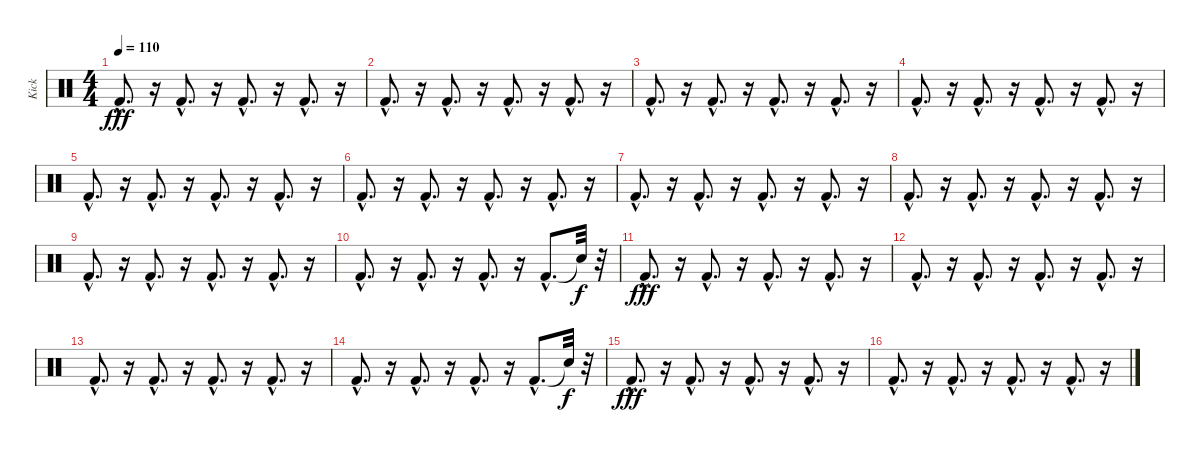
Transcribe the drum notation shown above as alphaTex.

\track ("Kick" "Kick") {instrument percussion}
\staff {score}
\articulation defaults
\ts (4 4)
\tempo 110
\clef neutral
\ks c "Kick (hit) 2"{hac}.8{d dy fff}
r.16 "Kick (hit) 2"{hac}.8{d} r.16 "Kick (hit) 2"{hac}.8{d} r.16 "Kick (hit) 2"{hac}.8{d} r.16 |
"Kick (hit) 2"{hac}.8{d} r.16 "Kick (hit) 2"{hac}.8{d} r.16 "Kick (hit) 2"{hac}.8{d} r.16 "Kick (hit) 2"{hac}.8{d} r.16 |
"Kick (hit) 2"{hac}.8{d} r.16 "Kick (hit) 2"{hac}.8{d} r.16 "Kick (hit) 2"{hac}.8{d} r.16 "Kick (hit) 2"{hac}.8{d} r.16 |
"Kick (hit) 2"{hac}.8{d} r.16 "Kick (hit) 2"{hac}.8{d} r.16 "Kick (hit) 2"{hac}.8{d} r.16 "Kick (hit) 2"{hac}.8{d} r.16 |
"Kick (hit) 2"{hac}.8{d} r.16 "Kick (hit) 2"{hac}.8{d} r.16 "Kick (hit) 2"{hac}.8{d} r.16 "Kick (hit) 2"{hac}.8{d} r.16 |
"Kick (hit) 2"{hac}.8{d} r.16 "Kick (hit) 2"{hac}.8{d} r.16 "Kick (hit) 2"{hac}.8{d} r.16 "Kick (hit) 2"{hac}.8{d} r.16 |
"Kick (hit) 2"{hac}.8{d} r.16 "Kick (hit) 2"{hac}.8{d} r.16 "Kick (hit) 2"{hac}.8{d} r.16 "Kick (hit) 2"{hac}.8{d} r.16 |
"Kick (hit) 2"{hac}.8{d} r.16 "Kick (hit) 2"{hac}.8{d} r.16 "Kick (hit) 2"{hac}.8{d} r.16 "Kick (hit) 2"{hac}.8{d} r.16 |
"Kick (hit) 2"{hac}.8{d} r.16 "Kick (hit) 2"{hac}.8{d} r.16 "Kick (hit) 2"{hac}.8{d} r.16 "Kick (hit) 2"{hac}.8{d} r.16 |
"Kick (hit) 2"{hac}.8{d} r.16 "Kick (hit) 2"{hac}.8{d} r.16 "Kick (hit) 2"{hac}.8{d} r.16 "Kick (hit) 2"{hac}.8{d} "Snare (hit)"{t}.32{dy f} r.32 |
"Kick (hit) 2"{hac}.8{d dy fff} r.16 "Kick (hit) 2"{hac}.8{d} r.16 "Kick (hit) 2"{hac}.8{d} r.16 "Kick (hit) 2"{hac}.8{d} r.16 |
"Kick (hit) 2"{hac}.8{d} r.16 "Kick (hit) 2"{hac}.8{d} r.16 "Kick (hit) 2"{hac}.8{d} r.16 "Kick (hit) 2"{hac}.8{d} r.16 |
"Kick (hit) 2"{hac}.8{d} r.16 "Kick (hit) 2"{hac}.8{d} r.16 "Kick (hit) 2"{hac}.8{d} r.16 "Kick (hit) 2"{hac}.8{d} r.16 |
"Kick (hit) 2"{hac}.8{d} r.16 "Kick (hit) 2"{hac}.8{d} r.16 "Kick (hit) 2"{hac}.8{d} r.16 "Kick (hit) 2"{hac}.8{d} "Snare (hit)"{t}.32{dy f} r.32 |
"Kick (hit) 2"{hac}.8{d dy fff} r.16 "Kick (hit) 2"{hac}.8{d} r.16 "Kick (hit) 2"{hac}.8{d} r.16 "Kick (hit) 2"{hac}.8{d} r.16 |
"Kick (hit) 2"{hac}.8{d} r.16 "Kick (hit) 2"{hac}.8{d} r.16 "Kick (hit) 2"{hac}.8{d} r.16 "Kick (hit) 2"{hac}.8{d} r.16
